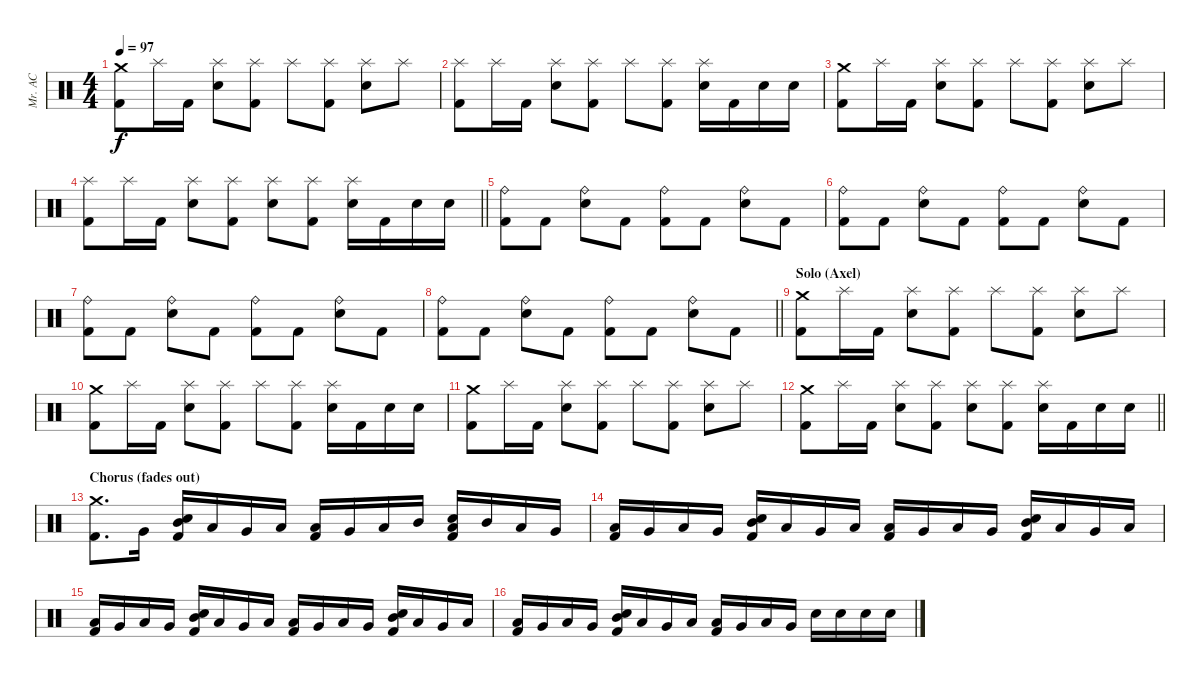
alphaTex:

\track ("Mr. AC" "Mr. AC") {instrument percussion}
\staff {score}
\articulation defaults
\ts (4 4)
\tempo 97
\clef neutral
\ks c
("Crash medium (hit)" "Kick (hit) 2").8{dy f} "Splash (hit)".16 "Kick (hit) 2".16 ("Splash (hit)" "Snare (hit) 2").8 ("Splash (hit)" "Kick (hit) 2").8 "Splash (hit)".8 ("Splash (hit)" "Kick (hit) 2").8 ("Splash (hit)" "Snare (hit) 2").8 "Splash (hit)".8 |
("Splash (hit)" "Kick (hit) 2").8 "Splash (hit)".16 "Kick (hit) 2".16 ("Splash (hit)" "Snare (hit) 2").8 ("Splash (hit)" "Kick (hit) 2").8 "Splash (hit)".8 ("Splash (hit)" "Kick (hit) 2").8 ("Splash (hit)" "Snare (hit) 2").16 "Kick (hit) 2".16 "Snare (hit) 2".16 "Snare (hit) 2".16 |
("Crash medium (hit)" "Kick (hit) 2").8 "Splash (hit)".16 "Kick (hit) 2".16 ("Splash (hit)" "Snare (hit) 2").8 ("Splash (hit)" "Kick (hit) 2").8 "Splash (hit)".8 ("Splash (hit)" "Kick (hit) 2").8 ("Splash (hit)" "Snare (hit) 2").8 "Splash (hit)".8 |
\barLineRight lightlight
("Splash (hit)" "Kick (hit) 2").8 "Splash (hit)".16 "Kick (hit) 2".16 ("Splash (hit)" "Snare (hit) 2").8 ("Splash (hit)" "Kick (hit) 2").8 ("Splash (hit)" "Snare (hit) 2").8 ("Splash (hit)" "Kick (hit) 2").8 ("Splash (hit)" "Snare (hit) 2").16 "Kick (hit) 2".16 "Snare (hit) 2".16 "Snare (hit) 2".16 |
("Ride (bell)" "Kick (hit) 2").8 "Kick (hit) 2".8 ("Ride (bell)" "Snare (hit) 2").8 "Kick (hit) 2".8 ("Ride (bell)" "Kick (hit) 2").8 "Kick (hit) 2".8 ("Ride (bell)" "Snare (hit) 2").8 "Kick (hit) 2".8 |
("Ride (bell)" "Kick (hit) 2").8 "Kick (hit) 2".8 ("Ride (bell)" "Snare (hit) 2").8 "Kick (hit) 2".8 ("Ride (bell)" "Kick (hit) 2").8 "Kick (hit) 2".8 ("Ride (bell)" "Snare (hit) 2").8 "Kick (hit) 2".8 |
("Ride (bell)" "Kick (hit) 2").8 "Kick (hit) 2".8 ("Ride (bell)" "Snare (hit) 2").8 "Kick (hit) 2".8 ("Ride (bell)" "Kick (hit) 2").8 "Kick (hit) 2".8 ("Ride (bell)" "Snare (hit) 2").8 "Kick (hit) 2".8 |
\barLineRight lightlight
("Ride (bell)" "Kick (hit) 2").8 "Kick (hit) 2".8 ("Ride (bell)" "Snare (hit) 2").8 "Kick (hit) 2".8 ("Ride (bell)" "Kick (hit) 2").8 "Kick (hit) 2".8 ("Ride (bell)" "Snare (hit) 2").8 "Kick (hit) 2".8 |
\section ("" "Solo (Axel)")
("Crash medium (hit)" "Kick (hit) 2").8 "Splash (hit)".16 "Kick (hit) 2".16 ("Splash (hit)" "Snare (hit) 2").8 ("Splash (hit)" "Kick (hit) 2").8 "Splash (hit)".8 ("Splash (hit)" "Kick (hit) 2").8 ("Splash (hit)" "Snare (hit) 2").8 "Splash (hit)".8 |
("Crash medium (hit)" "Kick (hit) 2").8 "Splash (hit)".16 "Kick (hit) 2".16 ("Splash (hit)" "Snare (hit) 2").8 ("Splash (hit)" "Kick (hit) 2").8 "Splash (hit)".8 ("Splash (hit)" "Kick (hit) 2").8 ("Splash (hit)" "Snare (hit) 2").16 "Kick (hit) 2".16 "Snare (hit) 2".16 "Snare (hit) 2".16 |
("Crash medium (hit)" "Kick (hit) 2").8 "Splash (hit)".16 "Kick (hit) 2".16 ("Splash (hit)" "Snare (hit) 2").8 ("Splash (hit)" "Kick (hit) 2").8 "Splash (hit)".8 ("Splash (hit)" "Kick (hit) 2").8 ("Splash (hit)" "Snare (hit) 2").8 "Splash (hit)".8 |
\barLineRight lightlight
("Crash medium (hit)" "Kick (hit) 2").8 "Splash (hit)".16 "Kick (hit) 2".16 ("Splash (hit)" "Snare (hit) 2").8 ("Splash (hit)" "Kick (hit) 2").8 ("Splash (hit)" "Snare (hit) 2").8 ("Splash (hit)" "Kick (hit) 2").8 ("Splash (hit)" "Snare (hit) 2").16 "Kick (hit) 2".16 "Snare (hit) 2".16 "Snare (hit) 2".16 |
\section ("" "Chorus (fades out)")
("Crash medium (hit)" "Kick (hit) 2").8{d} "Very Low Tom (hit)".16 ("Snare (hit) 2" "Mid Tom (hit)" "Kick (hit) 2").16 "Low Floor Tom (hit)".16 "Very Low Tom (hit)".16 "Low Tom (hit)".16 ("Low Floor Tom (hit)" "Kick (hit) 2").16 "Very Low Tom (hit)".16 "Low Tom (hit)".16 "Mid Tom (hit)".16 ("Snare (hit) 2" "Low Tom (hit)" "Kick (hit) 2").16 "Mid Tom (hit)".16 "Low Tom (hit)".16 "Very Low Tom (hit)".16 |
("Low Floor Tom (hit)" "Kick (hit) 2").16 "Very Low Tom (hit)".16 "Low Tom (hit)".16 "Very Low Tom (hit)".16 ("Snare (hit) 2" "Mid Tom (hit)" "Kick (hit) 2").16 "Low Tom (hit)".16 "Very Low Tom (hit)".16 "Low Tom (hit)".16 ("Low Floor Tom (hit)" "Kick (hit) 2").16 "Very Low Tom (hit)".16 "Low Tom (hit)".16 "Very Low Tom (hit)".16 ("Snare (hit) 2" "Mid Tom (hit)" "Kick (hit) 2").16 "Low Tom (hit)".16 "Very Low Tom (hit)".16 "Low Tom (hit)".16 |
("Low Floor Tom (hit)" "Kick (hit) 2").16 "Very Low Tom (hit)".16 "Low Tom (hit)".16 "Very Low Tom (hit)".16 ("Snare (hit) 2" "Mid Tom (hit)" "Kick (hit) 2").16 "Low Tom (hit)".16 "Very Low Tom (hit)".16 "Low Tom (hit)".16 ("Low Floor Tom (hit)" "Kick (hit) 2").16 "Very Low Tom (hit)".16 "Low Tom (hit)".16 "Very Low Tom (hit)".16 ("Snare (hit) 2" "Mid Tom (hit)" "Kick (hit) 2").16 "Low Tom (hit)".16 "Very Low Tom (hit)".16 "Low Tom (hit)".16 |
("Low Floor Tom (hit)" "Kick (hit) 2").16 "Very Low Tom (hit)".16 "Low Tom (hit)".16 "Very Low Tom (hit)".16 ("Snare (hit) 2" "Mid Tom (hit)" "Kick (hit) 2").16 "Low Tom (hit)".16 "Very Low Tom (hit)".16 "Low Tom (hit)".16 ("Low Floor Tom (hit)" "Kick (hit) 2").16 "Very Low Tom (hit)".16 "Low Tom (hit)".16 "Very Low Tom (hit)".16 "Snare (hit) 2".16 "Snare (hit) 2".16 "Snare (hit) 2".16 "Snare (hit) 2".16
